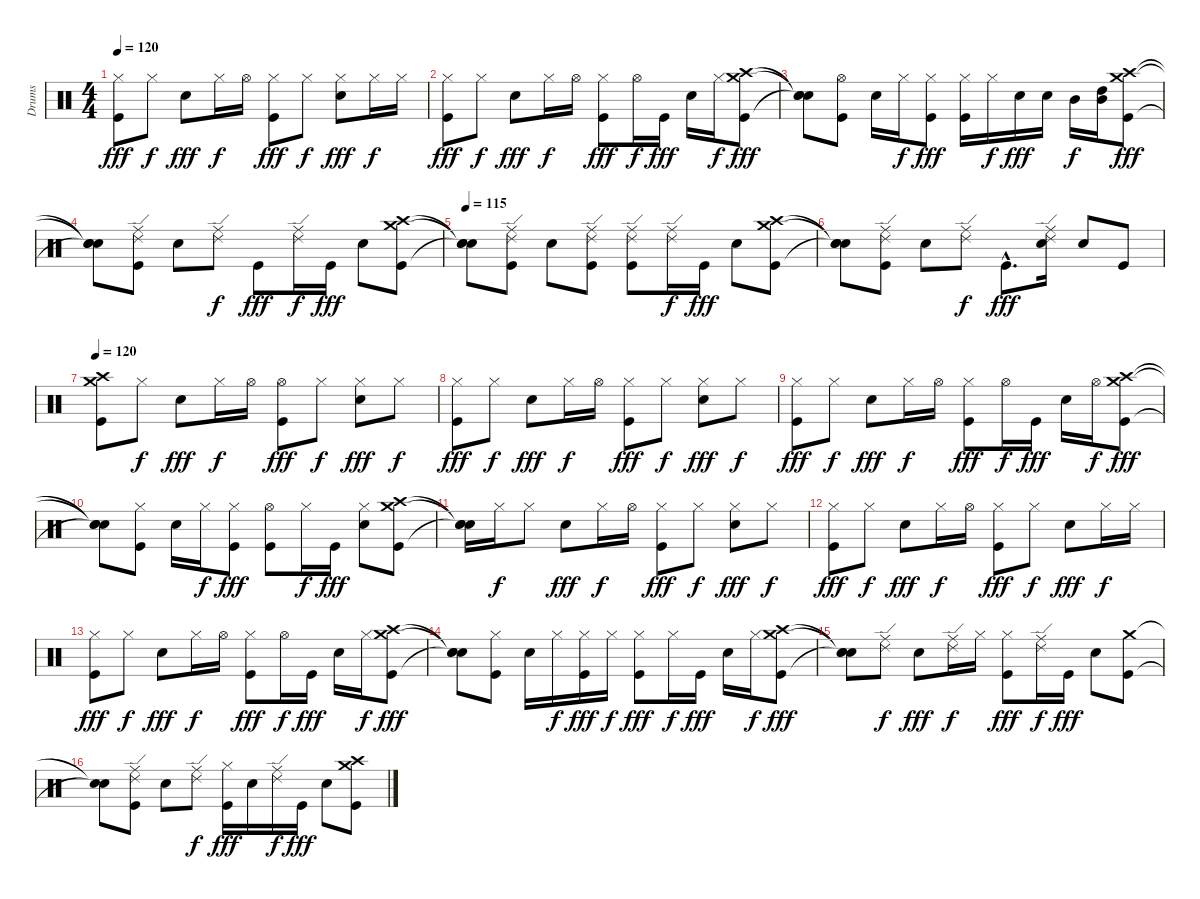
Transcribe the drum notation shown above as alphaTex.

\track ("Drums" "Drums") {instrument percussion}
\staff {score}
\articulation defaults
\ts (4 4)
\tempo 120
\clef neutral
\ks c
("Hi-Hat (closed)" "Kick (hit)").8{dy fff} "Hi-Hat (closed)".8{dy f} "Snare (hit) 2".8{dy fff} "Hi-Hat (closed)".16{dy f} "Hi-Hat (open)".16 ("Hi-Hat (closed)" "Kick (hit)").8{dy fff} "Hi-Hat (closed)".8{dy f} ("Hi-Hat (closed)" "Snare (hit) 2").8{dy fff} "Hi-Hat (closed)".16{dy f} "Hi-Hat (closed)".16 |
("Hi-Hat (closed)" "Kick (hit)").8{dy fff} "Hi-Hat (closed)".8{dy f} "Snare (hit) 2".8{dy fff} "Hi-Hat (closed)".16{dy f} "Hi-Hat (open)".16 ("Hi-Hat (closed)" "Kick (hit)").8{dy fff} "Hi-Hat (open)".16{dy f} "Kick (hit)".16{dy fff} "Snare (hit) 2".16 "Hi-Hat (closed)".16{dy f} ("Crash high (hit)" "Crash medium (hit)" "Kick (hit)").8{dy fff} |
("Snare (hit)"{t} "Snare (hit)"{t} "Snare (hit)"{t}).8 ("Hi-Hat (open)" "Kick (hit)").8 "Snare (hit) 2".16 "Hi-Hat (closed)".16{dy f} ("Hi-Hat (closed)" "Kick (hit)").8{dy fff} ("Hi-Hat (closed)" "Kick (hit)").16 "Hi-Hat (closed)".16{dy f} "Snare (hit) 2".16{dy fff} "Snare (hit) 2".16 "Mid Tom (hit)".16{dy f} ("Mid Tom (hit)" "High Tom (hit)").16 ("Crash high (hit)" "Crash medium (hit)" "Kick (hit)").8{dy fff} |
("Snare (hit)"{t} "Snare (hit)"{t} "Snare (hit)"{t}).8 ("Ride (edge) 2" "Ride (middle)" "Kick (hit)").8 "Snare (hit) 2".8 ("Ride (edge) 2" "Ride (middle)").8{dy f} "Kick (hit)".8{dy fff} ("Ride (edge) 2" "Ride (middle)").16{dy f} "Kick (hit)".16{dy fff} "Snare (hit) 2".8 ("Crash high (hit)" "Crash medium (hit)" "Kick (hit)").8 |
\tempo 115
("Snare (hit)"{t} "Snare (hit)"{t} "Snare (hit)"{t}).8 ("Ride (edge) 2" "Ride (middle)" "Kick (hit)").8 "Snare (hit) 2".8 ("Ride (edge) 2" "Ride (middle)" "Kick (hit)").8 ("Ride (edge) 2" "Ride (middle)" "Kick (hit)").8 ("Ride (edge) 2" "Ride (middle)").16{dy f} "Kick (hit)".16{dy fff} "Snare (hit) 2".8 ("Crash high (hit)" "Crash medium (hit)" "Kick (hit)").8 |
("Snare (hit)"{t} "Snare (hit)"{t} "Snare (hit)"{t}).8 ("Ride (edge) 2" "Ride (middle)" "Kick (hit)").8 "Snare (hit) 2".8 ("Ride (edge) 2" "Ride (middle)").8{dy f} "Kick (hit)"{hac}.8{d dy fff} ("Ride (edge) 2" "Ride (middle)" "Snare (hit) 2").16 "Snare (hit) 2".8 "Kick (hit)".8 |
\tempo 120
("Crash high (hit)" "Crash medium (hit)" "Kick (hit)").8 "Hi-Hat (closed)".8{dy f} "Snare (hit) 2".8{dy fff} "Hi-Hat (closed)".16{dy f} "Hi-Hat (open)".16 ("Hi-Hat (open)" "Kick (hit)").8{dy fff} "Hi-Hat (closed)".8{dy f} ("Hi-Hat (closed)" "Snare (hit) 2").8{dy fff} "Hi-Hat (closed)".8{dy f} |
("Hi-Hat (closed)" "Kick (hit)").8{dy fff} "Hi-Hat (closed)".8{dy f} "Snare (hit) 2".8{dy fff} "Hi-Hat (closed)".16{dy f} "Hi-Hat (open)".16 ("Hi-Hat (closed)" "Kick (hit)").8{dy fff} "Hi-Hat (closed)".8{dy f} ("Hi-Hat (closed)" "Snare (hit) 2").8{dy fff} "Hi-Hat (closed)".8{dy f} |
("Hi-Hat (closed)" "Kick (hit)").8{dy fff} "Hi-Hat (closed)".8{dy f} "Snare (hit) 2".8{dy fff} "Hi-Hat (closed)".16{dy f} "Hi-Hat (open)".16 ("Hi-Hat (closed)" "Kick (hit)").8{dy fff} "Hi-Hat (open)".16{dy f} "Kick (hit)".16{dy fff} "Snare (hit) 2".16 "Hi-Hat (open)".16{dy f} ("Crash high (hit)" "Crash medium (hit)" "Kick (hit)").8{dy fff} |
("Snare (hit)"{t} "Snare (hit)"{t} "Snare (hit)"{t}).8 ("Hi-Hat (closed)" "Kick (hit)").8 "Snare (hit) 2".16 "Hi-Hat (closed)".16{dy f} ("Hi-Hat (closed)" "Kick (hit)").8{dy fff} ("Hi-Hat (open)" "Kick (hit)").8 "Hi-Hat (closed)".16{dy f} "Kick (hit)".16{dy fff} ("Hi-Hat (closed)" "Snare (hit) 2").8 ("Crash high (hit)" "Crash medium (hit)" "Kick (hit)").8 |
("Snare (hit)"{t} "Snare (hit)"{t} "Snare (hit)"{t}).16 "Hi-Hat (closed)".16{dy f} "Hi-Hat (closed)".8 "Snare (hit) 2".8{dy fff} "Hi-Hat (closed)".16{dy f} "Hi-Hat (open)".16 ("Hi-Hat (closed)" "Kick (hit)").8{dy fff} "Hi-Hat (closed)".8{dy f} ("Hi-Hat (closed)" "Snare (hit) 2").8{dy fff} "Hi-Hat (closed)".8{dy f} |
("Hi-Hat (closed)" "Kick (hit)").8{dy fff} "Hi-Hat (closed)".8{dy f} "Snare (hit) 2".8{dy fff} "Hi-Hat (closed)".16{dy f} "Hi-Hat (open)".16 ("Hi-Hat (closed)" "Kick (hit)").8{dy fff} "Hi-Hat (closed)".8{dy f} "Snare (hit) 2".8{dy fff} "Hi-Hat (closed)".16{dy f} "Hi-Hat (closed)".16 |
("Hi-Hat (closed)" "Kick (hit)").8{dy fff} "Hi-Hat (closed)".8{dy f} "Snare (hit) 2".8{dy fff} "Hi-Hat (closed)".16{dy f} "Hi-Hat (open)".16 ("Hi-Hat (closed)" "Kick (hit)").8{dy fff} "Hi-Hat (open)".16{dy f} "Kick (hit)".16{dy fff} "Snare (hit) 2".16 "Hi-Hat (closed)".16{dy f} ("Crash high (hit)" "Crash medium (hit)" "Kick (hit)").8{dy fff} |
("Snare (hit)"{t} "Snare (hit)"{t} "Snare (hit)"{t}).8 ("Hi-Hat (closed)" "Kick (hit)").8 "Snare (hit) 2".16 "Hi-Hat (closed)".16{dy f} ("Hi-Hat (closed)" "Kick (hit)").16{dy fff} "Hi-Hat (closed)".16{dy f} ("Hi-Hat (closed)" "Kick (hit)").8{dy fff} "Hi-Hat (closed)".16{dy f} "Kick (hit)".16{dy fff} "Snare (hit) 2".16 "Hi-Hat (closed)".16{dy f} ("Crash high (hit)" "Crash medium (hit)" "Kick (hit)").8{dy fff} |
("Snare (hit)"{t} "Snare (hit)"{t} "Snare (hit)"{t}).8 ("Ride (edge) 2" "Ride (middle)").8{dy f} "Snare (hit) 2".8{dy fff} ("Ride (edge) 2" "Ride (middle)").16{dy f} "Hi-Hat (closed)".16 ("Hi-Hat (closed)" "Kick (hit)").8{dy fff} ("Ride (edge) 2" "Ride (middle)").16{dy f} "Kick (hit)".16{dy fff} "Snare (hit) 2".8 ("Crash medium (hit)" "Kick (hit)").8 |
("Snare (hit)"{t} "Snare (hit)"{t}).8 ("Ride (edge) 2" "Ride (middle)" "Kick (hit)").8 "Snare (hit) 2".8 ("Ride (edge) 2" "Ride (middle)").8{dy f} ("Hi-Hat (closed)" "Kick (hit)").16{dy fff} "Snare (hit) 2".16 ("Ride (edge) 2" "Ride (middle)").16{dy f} "Kick (hit)".16{dy fff} "Snare (hit) 2".8 ("Crash high (hit)" "Crash medium (hit)" "Kick (hit)").8
